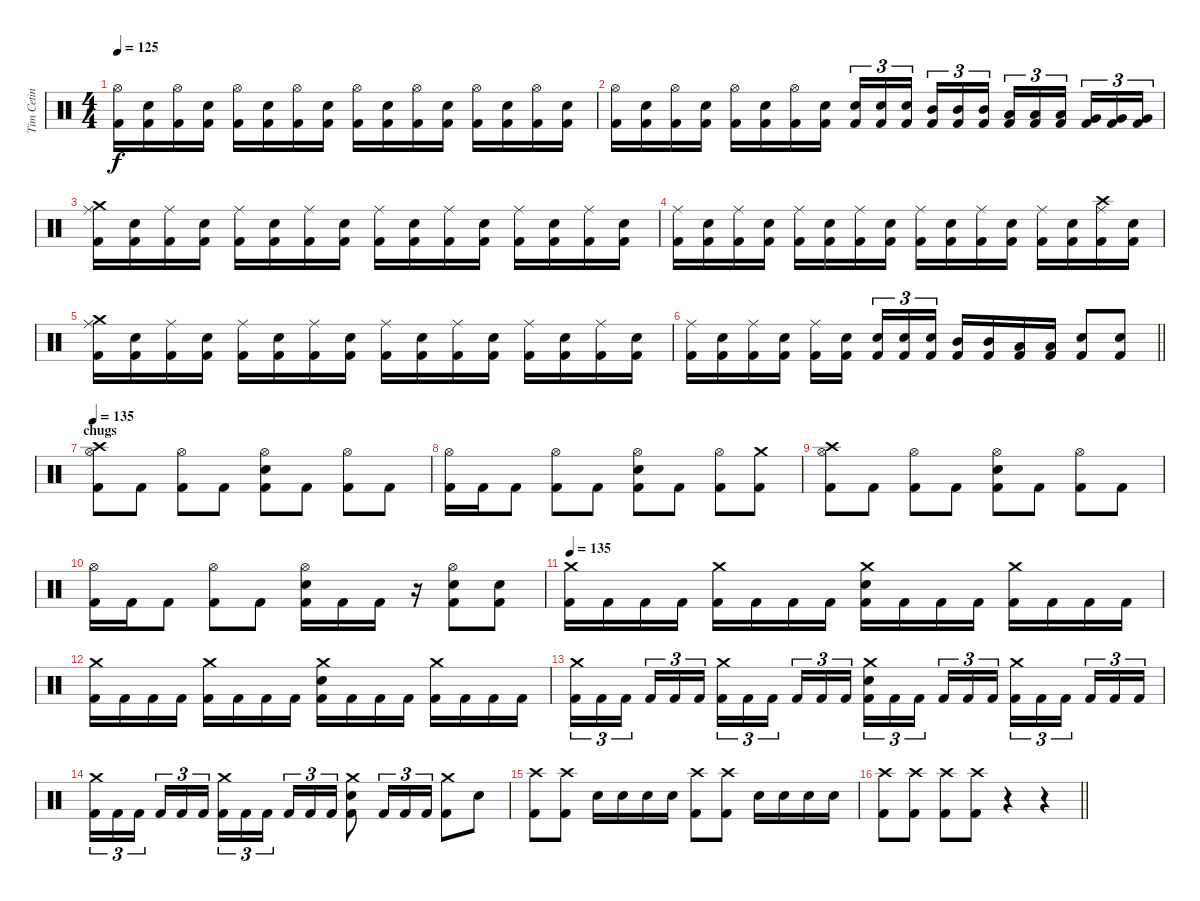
\track ("Tim Cetin" "Tim Cetin") {instrument percussion}
\staff {score}
\articulation defaults
\ts (4 4)
\tempo 125
\clef neutral
\ks c
("Hi-Hat (open)" "Kick (hit) 2").16{dy f} ("Electric Snare (hit)" "Kick (hit) 2").16 ("Hi-Hat (open)" "Kick (hit) 2").16 ("Electric Snare (hit)" "Kick (hit) 2").16 ("Hi-Hat (open)" "Kick (hit) 2").16 ("Electric Snare (hit)" "Kick (hit) 2").16 ("Hi-Hat (open)" "Kick (hit) 2").16 ("Electric Snare (hit)" "Kick (hit) 2").16 ("Hi-Hat (open)" "Kick (hit) 2").16 ("Electric Snare (hit)" "Kick (hit) 2").16 ("Hi-Hat (open)" "Kick (hit) 2").16 ("Electric Snare (hit)" "Kick (hit) 2").16 ("Hi-Hat (open)" "Kick (hit) 2").16 ("Electric Snare (hit)" "Kick (hit) 2").16 ("Hi-Hat (open)" "Kick (hit) 2").16 ("Electric Snare (hit)" "Kick (hit) 2").16 |
("Hi-Hat (open)" "Kick (hit) 2").16 ("Electric Snare (hit)" "Kick (hit) 2").16 ("Hi-Hat (open)" "Kick (hit) 2").16 ("Electric Snare (hit)" "Kick (hit) 2").16 ("Hi-Hat (open)" "Kick (hit) 2").16 ("Electric Snare (hit)" "Kick (hit) 2").16 ("Hi-Hat (open)" "Kick (hit) 2").16 ("Electric Snare (hit)" "Kick (hit) 2").16 ("Electric Snare (hit)" "Kick (hit) 2").16{tu (3 2)} ("Electric Snare (hit)" "Kick (hit) 2").16{tu (3 2)} ("Electric Snare (hit)" "Kick (hit) 2").16{tu (3 2) beam splitsecondary} ("Mid Tom (hit)" "Kick (hit) 2").16{tu (3 2)} ("Mid Tom (hit)" "Kick (hit) 2").16{tu (3 2)} ("Mid Tom (hit)" "Kick (hit) 2").16{tu (3 2)} ("Low Tom (hit)" "Kick (hit) 2").16{tu (3 2)} ("Low Tom (hit)" "Kick (hit) 2").16{tu (3 2)} ("Low Tom (hit)" "Kick (hit) 2").16{tu (3 2) beam splitsecondary} ("Very Low Tom (hit)" "Kick (hit) 2").16{tu (3 2)} ("Very Low Tom (hit)" "Kick (hit) 2").16{tu (3 2)} ("Very Low Tom (hit)" "Kick (hit) 2").16{tu (3 2)} |
("Crash medium (hit)" "Ride (middle)" "Kick (hit) 2").16 ("Electric Snare (hit)" "Kick (hit) 2").16 ("Ride (middle)" "Kick (hit) 2").16 ("Electric Snare (hit)" "Kick (hit) 2").16 ("Ride (middle)" "Kick (hit) 2").16 ("Electric Snare (hit)" "Kick (hit) 2").16 ("Ride (middle)" "Kick (hit) 2").16 ("Electric Snare (hit)" "Kick (hit) 2").16 ("Ride (middle)" "Kick (hit) 2").16 ("Electric Snare (hit)" "Kick (hit) 2").16 ("Ride (middle)" "Kick (hit) 2").16 ("Electric Snare (hit)" "Kick (hit) 2").16 ("Ride (middle)" "Kick (hit) 2").16 ("Electric Snare (hit)" "Kick (hit) 2").16 ("Ride (middle)" "Kick (hit) 2").16 ("Electric Snare (hit)" "Kick (hit) 2").16 |
("Ride (middle)" "Kick (hit) 2").16 ("Electric Snare (hit)" "Kick (hit) 2").16 ("Ride (middle)" "Kick (hit) 2").16 ("Electric Snare (hit)" "Kick (hit) 2").16 ("Ride (middle)" "Kick (hit) 2").16 ("Electric Snare (hit)" "Kick (hit) 2").16 ("Ride (middle)" "Kick (hit) 2").16 ("Electric Snare (hit)" "Kick (hit) 2").16 ("Ride (middle)" "Kick (hit) 2").16 ("Electric Snare (hit)" "Kick (hit) 2").16 ("Ride (middle)" "Kick (hit) 2").16 ("Electric Snare (hit)" "Kick (hit) 2").16 ("Ride (middle)" "Kick (hit) 2").16 ("Electric Snare (hit)" "Kick (hit) 2").16 ("Crash high (hit)" "Ride (middle)" "Kick (hit) 2").16 ("Electric Snare (hit)" "Kick (hit) 2").16 |
("Crash medium (hit)" "Ride (middle)" "Kick (hit) 2").16 ("Electric Snare (hit)" "Kick (hit) 2").16 ("Ride (middle)" "Kick (hit) 2").16 ("Electric Snare (hit)" "Kick (hit) 2").16 ("Ride (middle)" "Kick (hit) 2").16 ("Electric Snare (hit)" "Kick (hit) 2").16 ("Ride (middle)" "Kick (hit) 2").16 ("Electric Snare (hit)" "Kick (hit) 2").16 ("Ride (middle)" "Kick (hit) 2").16 ("Electric Snare (hit)" "Kick (hit) 2").16 ("Ride (middle)" "Kick (hit) 2").16 ("Electric Snare (hit)" "Kick (hit) 2").16 ("Ride (middle)" "Kick (hit) 2").16 ("Electric Snare (hit)" "Kick (hit) 2").16 ("Ride (middle)" "Kick (hit) 2").16 ("Electric Snare (hit)" "Kick (hit) 2").16 |
\barLineRight lightlight
("Ride (middle)" "Kick (hit) 2").16 ("Electric Snare (hit)" "Kick (hit) 2").16 ("Ride (middle)" "Kick (hit) 2").16 ("Electric Snare (hit)" "Kick (hit) 2").16 ("Ride (middle)" "Kick (hit) 2").16 ("Electric Snare (hit)" "Kick (hit) 2").16{beam splitsecondary} ("Electric Snare (hit)" "Kick (hit) 2").16{tu (3 2)} ("Electric Snare (hit)" "Kick (hit) 2").16{tu (3 2)} ("Electric Snare (hit)" "Kick (hit) 2").16{tu (3 2)} ("Mid Tom (hit)" "Kick (hit) 2").16 ("Mid Tom (hit)" "Kick (hit) 2").16 ("Low Tom (hit)" "Kick (hit) 2").16 ("Low Tom (hit)" "Kick (hit) 2").16 ("Electric Snare (hit)" "Kick (hit) 2").8 ("Electric Snare (hit)" "Kick (hit) 2").8 |
\section ("" "chugs")
\tempo 135
("Crash high (hit)" "Hi-Hat (open)" "Kick (hit) 2").8 "Kick (hit) 2".8 ("Hi-Hat (open)" "Kick (hit) 2").8 "Kick (hit) 2".8 ("Hi-Hat (open)" "Electric Snare (hit)" "Kick (hit) 2").8 "Kick (hit) 2".8 ("Hi-Hat (open)" "Kick (hit) 2").8 "Kick (hit) 2".8 |
("Hi-Hat (open)" "Kick (hit) 2").16 "Kick (hit) 2".16 "Kick (hit) 2".8 ("Hi-Hat (open)" "Kick (hit) 2").8 "Kick (hit) 2".8 ("Hi-Hat (open)" "Electric Snare (hit)" "Kick (hit) 2").8 "Kick (hit) 2".8 ("Hi-Hat (open)" "Kick (hit) 2").8 ("Crash medium (hit)" "Kick (hit) 2").8 |
("Crash high (hit)" "Hi-Hat (open)" "Kick (hit) 2").8 "Kick (hit) 2".8 ("Hi-Hat (open)" "Kick (hit) 2").8 "Kick (hit) 2".8 ("Hi-Hat (open)" "Electric Snare (hit)" "Kick (hit) 2").8 "Kick (hit) 2".8 ("Hi-Hat (open)" "Kick (hit) 2").8 "Kick (hit) 2".8 |
("Hi-Hat (open)" "Kick (hit) 2").16 "Kick (hit) 2".16 "Kick (hit) 2".8 ("Hi-Hat (open)" "Kick (hit) 2").8 "Kick (hit) 2".8 ("Hi-Hat (open)" "Electric Snare (hit)" "Kick (hit) 2").16 "Kick (hit) 2".16 "Kick (hit) 2".16 r.16 ("Hi-Hat (open)" "Electric Snare (hit)" "Kick (hit) 2").8 ("Electric Snare (hit)" "Kick (hit) 2").8 |
\tempo 135
("Crash medium (hit)" "Kick (hit) 2").16 "Kick (hit) 2".16 "Kick (hit) 2".16 "Kick (hit) 2".16 ("Crash medium (hit)" "Kick (hit) 2").16 "Kick (hit) 2".16 "Kick (hit) 2".16 "Kick (hit) 2".16 ("Crash medium (hit)" "Electric Snare (hit)" "Kick (hit) 2").16 "Kick (hit) 2".16 "Kick (hit) 2".16 "Kick (hit) 2".16 ("Crash medium (hit)" "Kick (hit) 2").16 "Kick (hit) 2".16 "Kick (hit) 2".16 "Kick (hit) 2".16 |
("Crash medium (hit)" "Kick (hit) 2").16 "Kick (hit) 2".16 "Kick (hit) 2".16 "Kick (hit) 2".16 ("Crash medium (hit)" "Kick (hit) 2").16 "Kick (hit) 2".16 "Kick (hit) 2".16 "Kick (hit) 2".16 ("Crash medium (hit)" "Electric Snare (hit)" "Kick (hit) 2").16 "Kick (hit) 2".16 "Kick (hit) 2".16 "Kick (hit) 2".16 ("Crash medium (hit)" "Kick (hit) 2").16 "Kick (hit) 2".16 "Kick (hit) 2".16 "Kick (hit) 2".16 |
("Crash medium (hit)" "Kick (hit) 2").16{tu (3 2)} "Kick (hit) 2".16{tu (3 2)} "Kick (hit) 2".16{tu (3 2) beam splitsecondary} "Kick (hit) 2".16{tu (3 2)} "Kick (hit) 2".16{tu (3 2)} "Kick (hit) 2".16{tu (3 2)} ("Crash medium (hit)" "Kick (hit) 2").16{tu (3 2)} "Kick (hit) 2".16{tu (3 2)} "Kick (hit) 2".16{tu (3 2) beam splitsecondary} "Kick (hit) 2".16{tu (3 2)} "Kick (hit) 2".16{tu (3 2)} "Kick (hit) 2".16{tu (3 2)} ("Crash medium (hit)" "Electric Snare (hit)" "Kick (hit) 2").16{tu (3 2)} "Kick (hit) 2".16{tu (3 2)} "Kick (hit) 2".16{tu (3 2) beam splitsecondary} "Kick (hit) 2".16{tu (3 2)} "Kick (hit) 2".16{tu (3 2)} "Kick (hit) 2".16{tu (3 2)} ("Crash medium (hit)" "Kick (hit) 2").16{tu (3 2)} "Kick (hit) 2".16{tu (3 2)} "Kick (hit) 2".16{tu (3 2) beam splitsecondary} "Kick (hit) 2".16{tu (3 2)} "Kick (hit) 2".16{tu (3 2)} "Kick (hit) 2".16{tu (3 2)} |
("Crash medium (hit)" "Kick (hit) 2").16{tu (3 2)} "Kick (hit) 2".16{tu (3 2)} "Kick (hit) 2".16{tu (3 2) beam splitsecondary} "Kick (hit) 2".16{tu (3 2)} "Kick (hit) 2".16{tu (3 2)} "Kick (hit) 2".16{tu (3 2)} ("Crash medium (hit)" "Kick (hit) 2").16{tu (3 2)} "Kick (hit) 2".16{tu (3 2)} "Kick (hit) 2".16{tu (3 2) beam splitsecondary} "Kick (hit) 2".16{tu (3 2)} "Kick (hit) 2".16{tu (3 2)} "Kick (hit) 2".16{tu (3 2)} ("Crash medium (hit)" "Electric Snare (hit)" "Kick (hit) 2").8 "Kick (hit) 2".16{tu (3 2)} "Kick (hit) 2".16{tu (3 2)} "Kick (hit) 2".16{tu (3 2)} ("Crash medium (hit)" "Kick (hit) 2").8 "Electric Snare (hit)".8 |
("Crash high (hit)" "Kick (hit) 2").8 ("Crash high (hit)" "Kick (hit) 2").8 "Electric Snare (hit)".16 "Electric Snare (hit)".16 "Electric Snare (hit)".16 "Electric Snare (hit)".16 ("Crash high (hit)" "Kick (hit) 2").8 ("Crash high (hit)" "Kick (hit) 2").8 "Electric Snare (hit)".16 "Electric Snare (hit)".16 "Electric Snare (hit)".16 "Electric Snare (hit)".16 |
\barLineRight lightlight
("Crash high (hit)" "Kick (hit) 2").8 ("Crash high (hit)" "Kick (hit) 2").8 ("Crash high (hit)" "Kick (hit) 2").8 ("Crash high (hit)" "Kick (hit) 2").8 r.4 r.4
